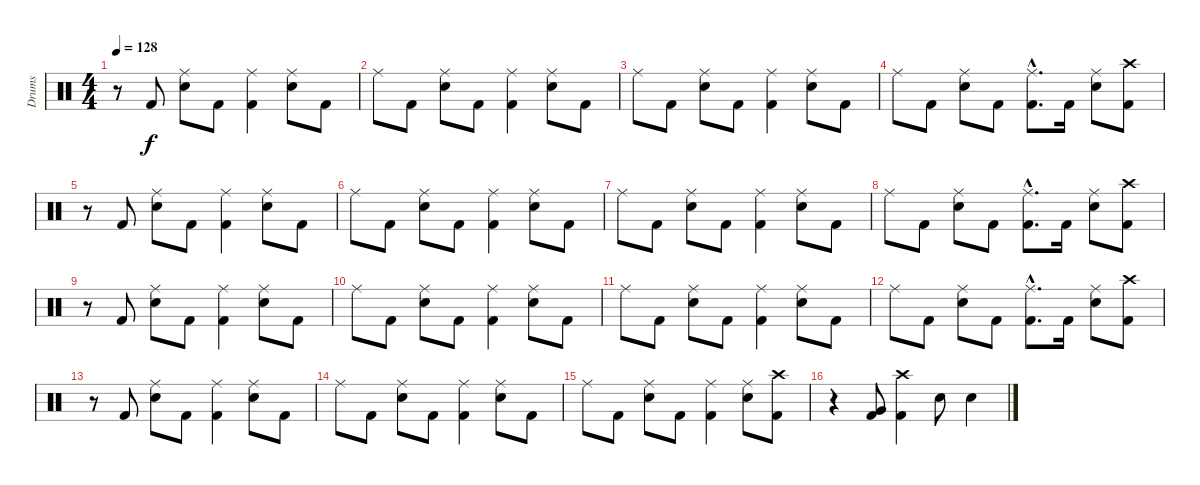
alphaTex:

\track ("Drums" "Drums") {instrument percussion}
\staff {score}
\articulation defaults
\ts (4 4)
\tempo 128
\clef neutral
\ks c
r.8{dy f} "Kick (hit) 2".8 ("Ride (middle)" "Electric Snare (hit)").8 "Kick (hit) 2".8 ("Ride (middle)" "Kick (hit) 2").4 ("Ride (middle)" "Electric Snare (hit)").8 "Kick (hit) 2".8 |
"Ride (middle)".8 "Kick (hit) 2".8 ("Ride (middle)" "Electric Snare (hit)").8 "Kick (hit) 2".8 ("Ride (middle)" "Kick (hit) 2").4 ("Ride (middle)" "Electric Snare (hit)").8 "Kick (hit) 2".8 |
"Ride (middle)".8 "Kick (hit) 2".8 ("Ride (middle)" "Electric Snare (hit)").8 "Kick (hit) 2".8 ("Ride (middle)" "Kick (hit) 2").4 ("Ride (middle)" "Electric Snare (hit)").8 "Kick (hit) 2".8 |
"Ride (middle)".8 "Kick (hit) 2".8 ("Ride (middle)" "Electric Snare (hit)").8 "Kick (hit) 2".8 ("Ride (middle)"{hac} "Kick (hit) 2"{hac}).8{d} "Kick (hit) 2".16 ("Ride (middle)" "Electric Snare (hit)").8 ("Crash high (hit)" "Kick (hit) 2").8 |
r.8 "Kick (hit) 2".8 ("Ride (middle)" "Electric Snare (hit)").8 "Kick (hit) 2".8 ("Ride (middle)" "Kick (hit) 2").4 ("Ride (middle)" "Electric Snare (hit)").8 "Kick (hit) 2".8 |
"Ride (middle)".8 "Kick (hit) 2".8 ("Ride (middle)" "Electric Snare (hit)").8 "Kick (hit) 2".8 ("Ride (middle)" "Kick (hit) 2").4 ("Ride (middle)" "Electric Snare (hit)").8 "Kick (hit) 2".8 |
"Ride (middle)".8 "Kick (hit) 2".8 ("Ride (middle)" "Electric Snare (hit)").8 "Kick (hit) 2".8 ("Ride (middle)" "Kick (hit) 2").4 ("Ride (middle)" "Electric Snare (hit)").8 "Kick (hit) 2".8 |
"Ride (middle)".8 "Kick (hit) 2".8 ("Ride (middle)" "Electric Snare (hit)").8 "Kick (hit) 2".8 ("Ride (middle)"{hac} "Kick (hit) 2"{hac}).8{d} "Kick (hit) 2".16 ("Ride (middle)" "Electric Snare (hit)").8 ("Crash high (hit)" "Kick (hit) 2").8 |
r.8 "Kick (hit) 2".8 ("Ride (middle)" "Electric Snare (hit)").8 "Kick (hit) 2".8 ("Ride (middle)" "Kick (hit) 2").4 ("Ride (middle)" "Electric Snare (hit)").8 "Kick (hit) 2".8 |
"Ride (middle)".8 "Kick (hit) 2".8 ("Ride (middle)" "Electric Snare (hit)").8 "Kick (hit) 2".8 ("Ride (middle)" "Kick (hit) 2").4 ("Ride (middle)" "Electric Snare (hit)").8 "Kick (hit) 2".8 |
"Ride (middle)".8 "Kick (hit) 2".8 ("Ride (middle)" "Electric Snare (hit)").8 "Kick (hit) 2".8 ("Ride (middle)" "Kick (hit) 2").4 ("Ride (middle)" "Electric Snare (hit)").8 "Kick (hit) 2".8 |
"Ride (middle)".8 "Kick (hit) 2".8 ("Ride (middle)" "Electric Snare (hit)").8 "Kick (hit) 2".8 ("Ride (middle)"{hac} "Kick (hit) 2"{hac}).8{d} "Kick (hit) 2".16 ("Ride (middle)" "Electric Snare (hit)").8 ("Crash high (hit)" "Kick (hit) 2").8 |
r.8 "Kick (hit) 2".8 ("Ride (middle)" "Electric Snare (hit)").8 "Kick (hit) 2".8 ("Ride (middle)" "Kick (hit) 2").4 ("Ride (middle)" "Electric Snare (hit)").8 "Kick (hit) 2".8 |
"Ride (middle)".8 "Kick (hit) 2".8 ("Ride (middle)" "Electric Snare (hit)").8 "Kick (hit) 2".8 ("Ride (middle)" "Kick (hit) 2").4 ("Ride (middle)" "Electric Snare (hit)").8 "Kick (hit) 2".8 |
"Ride (middle)".8 "Kick (hit) 2".8 ("Ride (middle)" "Electric Snare (hit)").8 "Kick (hit) 2".8 ("Ride (middle)" "Kick (hit) 2").4 ("Ride (middle)" "Electric Snare (hit)").8 ("Crash high (hit)" "Kick (hit) 2").8 |
r.4 ("Very Low Tom (hit)" "Kick (hit) 2").8 ("Crash high (hit)" "Kick (hit) 2").4 "Electric Snare (hit)".8 "Electric Snare (hit)".4
